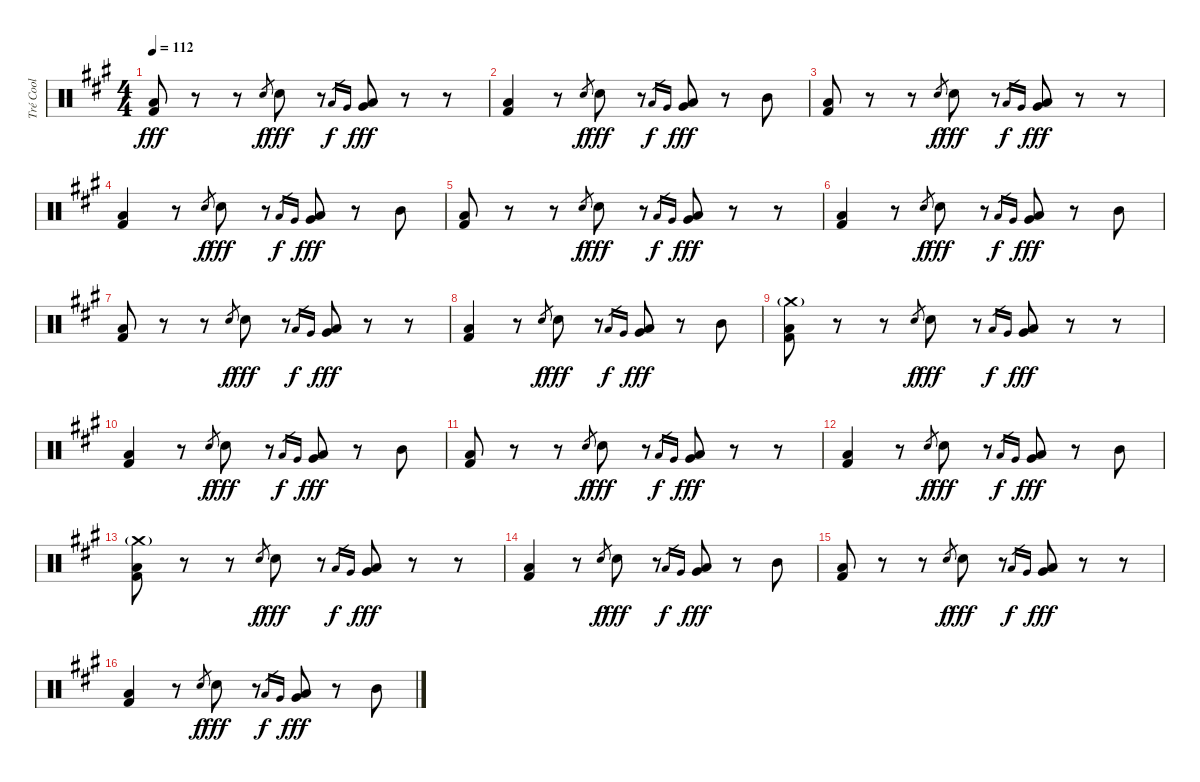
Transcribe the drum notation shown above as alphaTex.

\track ("Tré Cool" "Tré Cool") {instrument percussion}
\staff {score}
\articulation defaults
\ts (4 4)
\tempo 112
\clef neutral
\ks a
("Low Floor Tom (hit)" "Kick (hit) 2").8{dy fff} r.8 r.8 "Electric Snare (hit)".8{gr dy f} "Electric Snare (hit)".8{dy fff} r.8 "Low Floor Tom (hit)".16{gr dy f} "Very Low Tom (hit)".16{gr} ("Low Floor Tom (hit)" "Very Low Tom (hit)").8{dy fff} r.8 r.8 |
("Low Floor Tom (hit)" "Kick (hit) 2").4 r.8 "Electric Snare (hit)".8{gr dy f} "Electric Snare (hit)".8{dy fff} r.8 "Low Floor Tom (hit)".16{gr dy f} "Very Low Tom (hit)".16{gr} ("Low Floor Tom (hit)" "Very Low Tom (hit)").8{dy fff} r.8 "Mid Tom (hit)".8 |
("Low Floor Tom (hit)" "Kick (hit) 2").8 r.8 r.8 "Electric Snare (hit)".8{gr dy f} "Electric Snare (hit)".8{dy fff} r.8 "Low Floor Tom (hit)".16{gr dy f} "Very Low Tom (hit)".16{gr} ("Low Floor Tom (hit)" "Very Low Tom (hit)").8{dy fff} r.8 r.8 |
("Low Floor Tom (hit)" "Kick (hit) 2").4 r.8 "Electric Snare (hit)".8{gr dy f} "Electric Snare (hit)".8{dy fff} r.8 "Low Floor Tom (hit)".16{gr dy f} "Very Low Tom (hit)".16{gr} ("Low Floor Tom (hit)" "Very Low Tom (hit)").8{dy fff} r.8 "Mid Tom (hit)".8 |
("Low Floor Tom (hit)" "Kick (hit) 2").8 r.8 r.8 "Electric Snare (hit)".8{gr dy f} "Electric Snare (hit)".8{dy fff} r.8 "Low Floor Tom (hit)".16{gr dy f} "Very Low Tom (hit)".16{gr} ("Low Floor Tom (hit)" "Very Low Tom (hit)").8{dy fff} r.8 r.8 |
("Low Floor Tom (hit)" "Kick (hit) 2").4 r.8 "Electric Snare (hit)".8{gr dy f} "Electric Snare (hit)".8{dy fff} r.8 "Low Floor Tom (hit)".16{gr dy f} "Very Low Tom (hit)".16{gr} ("Low Floor Tom (hit)" "Very Low Tom (hit)").8{dy fff} r.8 "Mid Tom (hit)".8 |
("Low Floor Tom (hit)" "Kick (hit) 2").8 r.8 r.8 "Electric Snare (hit)".8{gr dy f} "Electric Snare (hit)".8{dy fff} r.8 "Low Floor Tom (hit)".16{gr dy f} "Very Low Tom (hit)".16{gr} ("Low Floor Tom (hit)" "Very Low Tom (hit)").8{dy fff} r.8 r.8 |
("Low Floor Tom (hit)" "Kick (hit) 2").4 r.8 "Electric Snare (hit)".8{gr dy f} "Electric Snare (hit)".8{dy fff} r.8 "Low Floor Tom (hit)".16{gr dy f} "Very Low Tom (hit)".16{gr} ("Low Floor Tom (hit)" "Very Low Tom (hit)").8{dy fff} r.8 "Mid Tom (hit)".8 |
("Crash medium (hit)"{g} "Low Floor Tom (hit)" "Kick (hit) 2").8 r.8 r.8 "Electric Snare (hit)".8{gr dy f} "Electric Snare (hit)".8{dy fff} r.8 "Low Floor Tom (hit)".16{gr dy f} "Very Low Tom (hit)".16{gr} ("Low Floor Tom (hit)" "Very Low Tom (hit)").8{dy fff} r.8 r.8 |
("Low Floor Tom (hit)" "Kick (hit) 2").4 r.8 "Electric Snare (hit)".8{gr dy f} "Electric Snare (hit)".8{dy fff} r.8 "Low Floor Tom (hit)".16{gr dy f} "Very Low Tom (hit)".16{gr} ("Low Floor Tom (hit)" "Very Low Tom (hit)").8{dy fff} r.8 "Mid Tom (hit)".8 |
("Low Floor Tom (hit)" "Kick (hit) 2").8 r.8 r.8 "Electric Snare (hit)".8{gr dy f} "Electric Snare (hit)".8{dy fff} r.8 "Low Floor Tom (hit)".16{gr dy f} "Very Low Tom (hit)".16{gr} ("Low Floor Tom (hit)" "Very Low Tom (hit)").8{dy fff} r.8 r.8 |
("Low Floor Tom (hit)" "Kick (hit) 2").4 r.8 "Electric Snare (hit)".8{gr dy f} "Electric Snare (hit)".8{dy fff} r.8 "Low Floor Tom (hit)".16{gr dy f} "Very Low Tom (hit)".16{gr} ("Low Floor Tom (hit)" "Very Low Tom (hit)").8{dy fff} r.8 "Mid Tom (hit)".8 |
("Crash medium (hit)"{g} "Low Floor Tom (hit)" "Kick (hit) 2").8 r.8 r.8 "Electric Snare (hit)".8{gr dy f} "Electric Snare (hit)".8{dy fff} r.8 "Low Floor Tom (hit)".16{gr dy f} "Very Low Tom (hit)".16{gr} ("Low Floor Tom (hit)" "Very Low Tom (hit)").8{dy fff} r.8 r.8 |
("Low Floor Tom (hit)" "Kick (hit) 2").4 r.8 "Electric Snare (hit)".8{gr dy f} "Electric Snare (hit)".8{dy fff} r.8 "Low Floor Tom (hit)".16{gr dy f} "Very Low Tom (hit)".16{gr} ("Low Floor Tom (hit)" "Very Low Tom (hit)").8{dy fff} r.8 "Mid Tom (hit)".8 |
("Low Floor Tom (hit)" "Kick (hit) 2").8 r.8 r.8 "Electric Snare (hit)".8{gr dy f} "Electric Snare (hit)".8{dy fff} r.8 "Low Floor Tom (hit)".16{gr dy f} "Very Low Tom (hit)".16{gr} ("Low Floor Tom (hit)" "Very Low Tom (hit)").8{dy fff} r.8 r.8 |
("Low Floor Tom (hit)" "Kick (hit) 2").4 r.8 "Electric Snare (hit)".8{gr dy f} "Electric Snare (hit)".8{dy fff} r.8 "Low Floor Tom (hit)".16{gr dy f} "Very Low Tom (hit)".16{gr} ("Low Floor Tom (hit)" "Very Low Tom (hit)").8{dy fff} r.8 "Mid Tom (hit)".8
